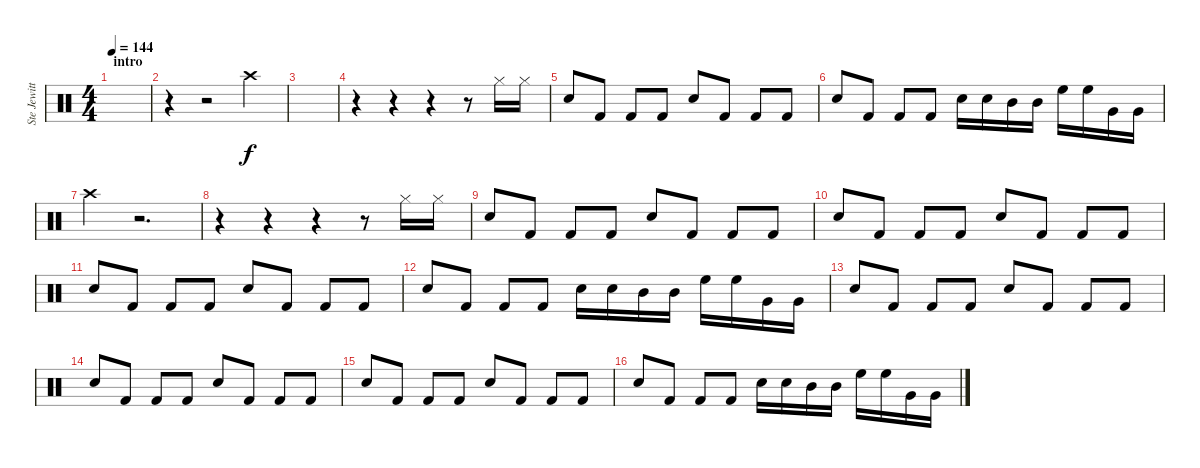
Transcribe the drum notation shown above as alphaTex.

\track ("Ste Jewitt (Drummer)" "Ste Jewitt") {instrument percussion}
\staff {score}
\articulation defaults
\ts (4 4)
\section ("" "intro")
\tempo 144
\clef neutral
\ks c
|
r.4 r.2 "Crash high (hit)".4 |
|
r.4 r.4 r.4 r.8 "Hi-Hat (closed)".16 "Hi-Hat (closed)".16 |
"Snare (hit) 2".8 "Kick (hit) 2".8 "Kick (hit) 2".8 "Kick (hit) 2".8 "Snare (hit) 2".8 "Kick (hit) 2".8 "Kick (hit) 2".8 "Kick (hit) 2".8 |
"Snare (hit) 2".8 "Kick (hit) 2".8 "Kick (hit) 2".8 "Kick (hit) 2".8 "Snare (hit) 2".16 "Snare (hit) 2".16 "Mid Tom (hit)".16 "Mid Tom (hit)".16 "High Floor Tom (hit)".16 "High Floor Tom (hit)".16 "Very Low Tom (hit)".16 "Very Low Tom (hit)".16 |
"Crash high (hit)".4 r.2{d} |
r.4 r.4 r.4 r.8 "Hi-Hat (closed)".16 "Hi-Hat (closed)".16 |
"Snare (hit) 2".8 "Kick (hit) 2".8 "Kick (hit) 2".8 "Kick (hit) 2".8 "Snare (hit) 2".8 "Kick (hit) 2".8 "Kick (hit) 2".8 "Kick (hit) 2".8 |
"Snare (hit) 2".8 "Kick (hit) 2".8 "Kick (hit) 2".8 "Kick (hit) 2".8 "Snare (hit) 2".8 "Kick (hit) 2".8 "Kick (hit) 2".8 "Kick (hit) 2".8 |
"Snare (hit) 2".8 "Kick (hit) 2".8 "Kick (hit) 2".8 "Kick (hit) 2".8 "Snare (hit) 2".8 "Kick (hit) 2".8 "Kick (hit) 2".8 "Kick (hit) 2".8 |
"Snare (hit) 2".8 "Kick (hit) 2".8 "Kick (hit) 2".8 "Kick (hit) 2".8 "Snare (hit) 2".16 "Snare (hit) 2".16 "Mid Tom (hit)".16 "Mid Tom (hit)".16 "High Floor Tom (hit)".16 "High Floor Tom (hit)".16 "Very Low Tom (hit)".16 "Very Low Tom (hit)".16 |
"Snare (hit) 2".8 "Kick (hit) 2".8 "Kick (hit) 2".8 "Kick (hit) 2".8 "Snare (hit) 2".8 "Kick (hit) 2".8 "Kick (hit) 2".8 "Kick (hit) 2".8 |
"Snare (hit) 2".8 "Kick (hit) 2".8 "Kick (hit) 2".8 "Kick (hit) 2".8 "Snare (hit) 2".8 "Kick (hit) 2".8 "Kick (hit) 2".8 "Kick (hit) 2".8 |
"Snare (hit) 2".8 "Kick (hit) 2".8 "Kick (hit) 2".8 "Kick (hit) 2".8 "Snare (hit) 2".8 "Kick (hit) 2".8 "Kick (hit) 2".8 "Kick (hit) 2".8 |
"Snare (hit) 2".8 "Kick (hit) 2".8 "Kick (hit) 2".8 "Kick (hit) 2".8 "Snare (hit) 2".16 "Snare (hit) 2".16 "Mid Tom (hit)".16 "Mid Tom (hit)".16 "High Floor Tom (hit)".16 "High Floor Tom (hit)".16 "Very Low Tom (hit)".16 "Very Low Tom (hit)".16
